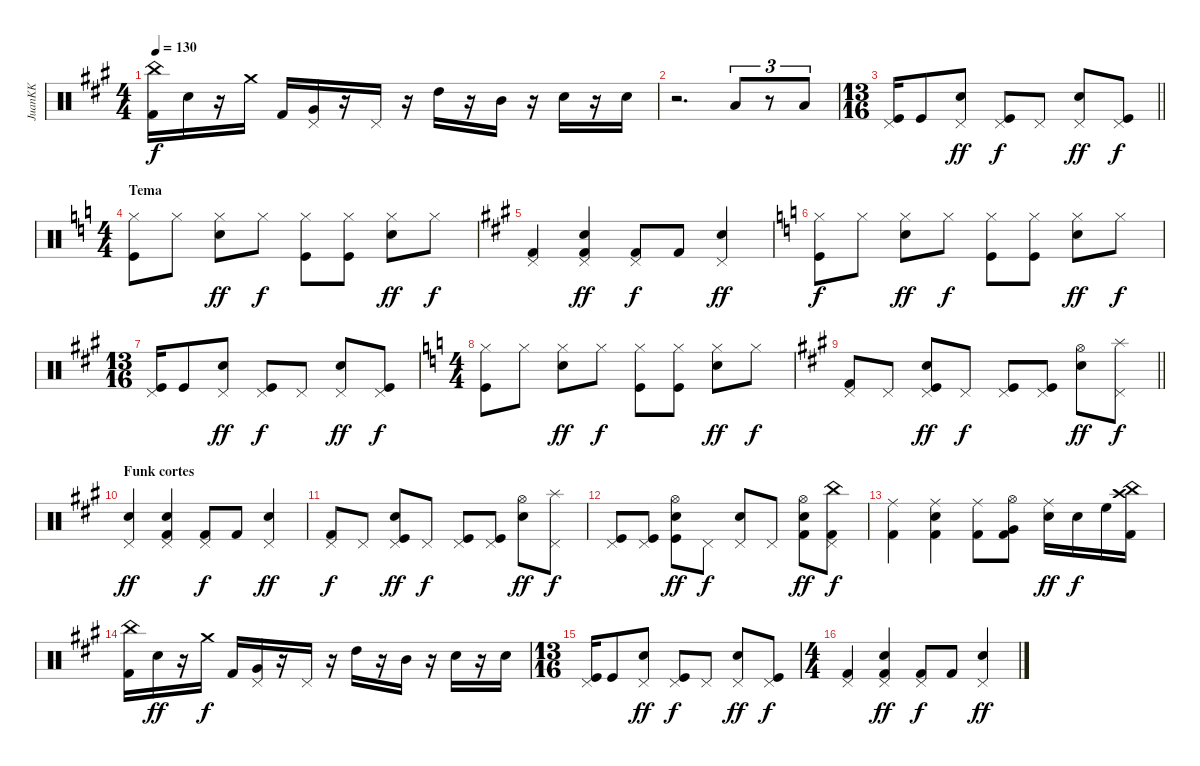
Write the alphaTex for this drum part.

\track ("JuanKK" "JuanKK") {instrument percussion}
\staff {score}
\articulation defaults
\ts (4 4)
\tempo 130
\clef neutral
\ks a
("China (hit)" "Kick (hit) 2").16{dy f} "Electric Snare (hit)".16 r.16 "Crash medium (hit)".16 "Kick (hit) 2".16 ("Very Low Tom (hit)" "Pedal Hi-Hat (hit)").16 r.16 "Pedal Hi-Hat (hit)".16 r.16 "High Tom (hit)".16 r.16 "Mid Tom (hit)".16 r.16 "Snare (hit) 2".16 r.16 "Snare (hit) 2".16 |
r.2{d} "Low Floor Tom (hit)".8{tu (3 2)} r.8{tu (3 2)} "Low Tom (hit)".8{tu (3 2)} |
\ts (13 16)
\barLineRight lightlight
("Kick (hit)" "Pedal Hi-Hat (hit)").16 "Kick (hit)".8 ("Electric Snare (hit)" "Pedal Hi-Hat (hit)").8{dy ff} ("Kick (hit)" "Pedal Hi-Hat (hit)").8{dy f} "Pedal Hi-Hat (hit)".8 ("Electric Snare (hit)" "Pedal Hi-Hat (hit)").8{dy ff} ("Kick (hit)" "Pedal Hi-Hat (hit)").8{dy f} |
\ts (4 4)
\section ("" "Tema")
\ks c
("Kick (hit)" "Hi-Hat (closed)").8 "Hi-Hat (closed)".8 ("Electric Snare (hit)" "Hi-Hat (closed)").8{dy ff} "Hi-Hat (closed)".8{dy f} ("Kick (hit)" "Hi-Hat (closed)").8 ("Kick (hit)" "Hi-Hat (closed)").8 ("Electric Snare (hit)" "Hi-Hat (closed)").8{dy ff} "Hi-Hat (closed)".8{dy f} |
\ks a
("Pedal Hi-Hat (hit)" "Kick (hit) 2").4 ("Pedal Hi-Hat (hit)" "Kick (hit) 2" "Electric Snare (hit)").4{dy ff} ("Pedal Hi-Hat (hit)" "Kick (hit) 2").8{dy f} "Kick (hit) 2".8 ("Pedal Hi-Hat (hit)" "Electric Snare (hit)").4{dy ff} |
\ks c
("Kick (hit)" "Hi-Hat (closed)").8{dy f} "Hi-Hat (closed)".8 ("Electric Snare (hit)" "Hi-Hat (closed)").8{dy ff} "Hi-Hat (closed)".8{dy f} ("Kick (hit)" "Hi-Hat (closed)").8 ("Kick (hit)" "Hi-Hat (closed)").8 ("Electric Snare (hit)" "Hi-Hat (closed)").8{dy ff} "Hi-Hat (closed)".8{dy f} |
\ts (13 16)
\ks a
("Kick (hit)" "Pedal Hi-Hat (hit)").16 "Kick (hit)".8 ("Electric Snare (hit)" "Pedal Hi-Hat (hit)").8{dy ff} ("Kick (hit)" "Pedal Hi-Hat (hit)").8{dy f} "Pedal Hi-Hat (hit)".8 ("Electric Snare (hit)" "Pedal Hi-Hat (hit)").8{dy ff} ("Kick (hit)" "Pedal Hi-Hat (hit)").8{dy f} |
\ts (4 4)
\ks c
("Kick (hit)" "Hi-Hat (closed)").8 "Hi-Hat (closed)".8 ("Electric Snare (hit)" "Hi-Hat (closed)").8{dy ff} "Hi-Hat (closed)".8{dy f} ("Kick (hit)" "Hi-Hat (closed)").8 ("Kick (hit)" "Hi-Hat (closed)").8 ("Electric Snare (hit)" "Hi-Hat (closed)").8{dy ff} "Hi-Hat (closed)".8{dy f} |
\barLineRight lightlight
\ks a
("Pedal Hi-Hat (hit)" "Kick (hit) 2").8 "Pedal Hi-Hat (hit)".8 ("Pedal Hi-Hat (hit)" "Kick (hit)" "Electric Snare (hit)").8{dy ff} "Pedal Hi-Hat (hit)".8{dy f} ("Pedal Hi-Hat (hit)" "Kick (hit)").8 ("Pedal Hi-Hat (hit)" "Kick (hit)").8 ("Hi-Hat (open)" "Electric Snare (hit)").8{dy ff} ("Pedal Hi-Hat (hit)" "Splash (hit)").8{dy f} |
\section ("" "Funk cortes")
("Pedal Hi-Hat (hit)" "Electric Snare (hit)").4{dy ff} ("Pedal Hi-Hat (hit)" "Kick (hit) 2" "Electric Snare (hit)").4 ("Pedal Hi-Hat (hit)" "Kick (hit) 2").8{dy f} "Kick (hit) 2".8 ("Pedal Hi-Hat (hit)" "Electric Snare (hit)").4{dy ff} |
("Pedal Hi-Hat (hit)" "Kick (hit) 2").8{dy f} "Pedal Hi-Hat (hit)".8 ("Pedal Hi-Hat (hit)" "Kick (hit)" "Electric Snare (hit)").8{dy ff} "Pedal Hi-Hat (hit)".8{dy f} ("Pedal Hi-Hat (hit)" "Kick (hit)").8 ("Pedal Hi-Hat (hit)" "Kick (hit)").8 ("Hi-Hat (open)" "Electric Snare (hit)").8{dy ff} ("Pedal Hi-Hat (hit)" "Splash (hit)").8{dy f} |
("Pedal Hi-Hat (hit)" "Kick (hit)").8 ("Pedal Hi-Hat (hit)" "Kick (hit)").8 ("Hi-Hat (open)" "Kick (hit)" "Electric Snare (hit)").8{dy ff} "Pedal Hi-Hat (hit)".8{dy f} ("Pedal Hi-Hat (hit)" "Electric Snare (hit)").8 "Pedal Hi-Hat (hit)".8 ("Hi-Hat (open)" "Kick (hit) 2" "Electric Snare (hit)").8{dy ff} ("Pedal Hi-Hat (hit)" "Kick (hit) 2" "China (hit)").8{dy f} |
("Kick (hit) 2" "Ride (middle)").4 ("Kick (hit) 2" "Electric Snare (hit)" "Ride (middle)").4 ("Kick (hit) 2" "Ride (middle)").8 ("Very Low Tom (hit)" "Kick (hit) 2" "Hi-Hat (open)").8 ("Electric Snare (hit)" "Ride (middle)").16{dy ff} "Electric Snare (hit)".16{dy f} "High Floor Tom (hit)".16 ("Kick (hit) 2" "Crash high (hit)" "China (hit)").16 |
("China (hit)" "Kick (hit) 2").16 "Electric Snare (hit)".16{dy ff} r.16 "Crash medium (hit)".16{dy f} "Kick (hit) 2".16 ("Very Low Tom (hit)" "Pedal Hi-Hat (hit)").16 r.16 "Pedal Hi-Hat (hit)".16 r.16 "High Tom (hit)".16 r.16 "Mid Tom (hit)".16 r.16 "Snare (hit) 2".16 r.16 "Snare (hit) 2".16 |
\ts (13 16)
("Kick (hit)" "Pedal Hi-Hat (hit)").16 "Kick (hit)".8 ("Electric Snare (hit)" "Pedal Hi-Hat (hit)").8{dy ff} ("Kick (hit)" "Pedal Hi-Hat (hit)").8{dy f} "Pedal Hi-Hat (hit)".8 ("Electric Snare (hit)" "Pedal Hi-Hat (hit)").8{dy ff} ("Kick (hit)" "Pedal Hi-Hat (hit)").8{dy f} |
\ts (4 4)
("Pedal Hi-Hat (hit)" "Kick (hit) 2").4 ("Pedal Hi-Hat (hit)" "Kick (hit) 2" "Electric Snare (hit)").4{dy ff} ("Pedal Hi-Hat (hit)" "Kick (hit) 2").8{dy f} "Kick (hit) 2".8 ("Pedal Hi-Hat (hit)" "Electric Snare (hit)").4{dy ff}
